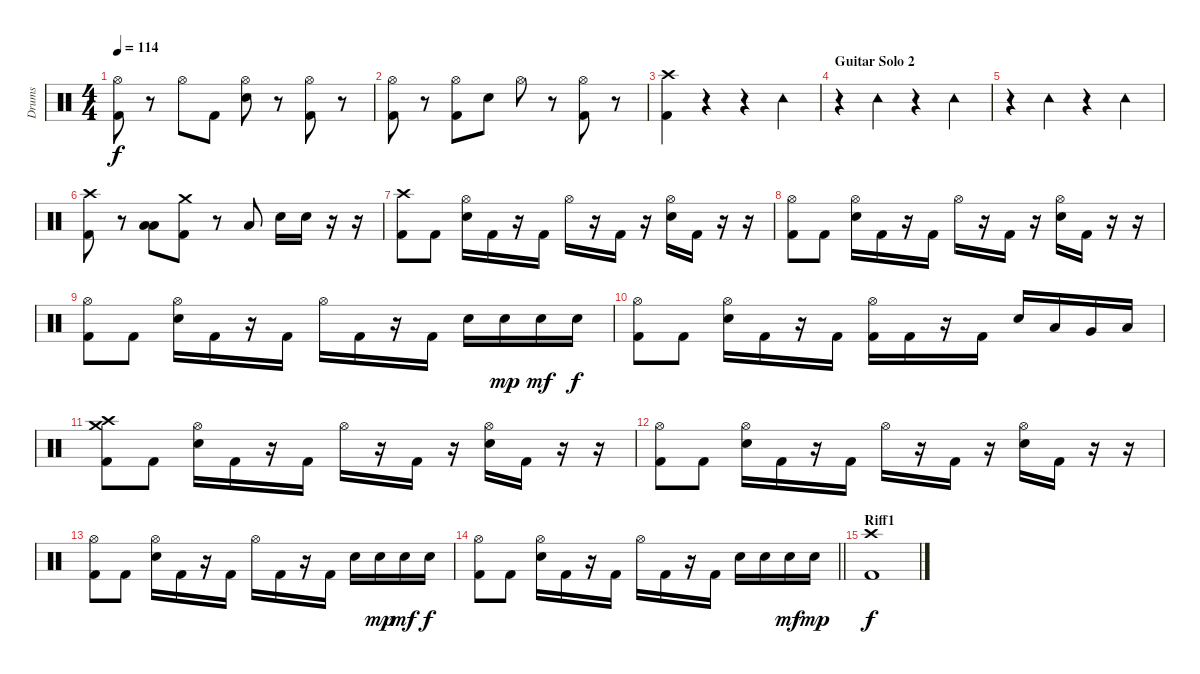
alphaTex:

\track ("Drums" "Drums") {instrument percussion}
\staff {score}
\articulation defaults
\ts (4 4)
\tempo 114
\clef neutral
\ks c
("Kick (hit) 2" "Hi-Hat (open)").8{dy f} r.8 "Hi-Hat (open)".8 "Kick (hit) 2".8 ("Electric Snare (hit)" "Hi-Hat (open)").8 r.8 ("Kick (hit) 2" "Hi-Hat (open)").8 r.8 |
("Kick (hit) 2" "Hi-Hat (open)").8 r.8 ("Kick (hit) 2" "Hi-Hat (open)").8 "Electric Snare (hit)".8 "Hi-Hat (open)".8 r.8 ("Kick (hit) 2" "Hi-Hat (open)").8 r.8 |
("Kick (hit) 2" "Crash high (hit)").4 r.4 r.4 "Tambourine (hit)".4 |
\section ("" "Guitar Solo 2")
r.4 "Tambourine (hit)".4 r.4 "Tambourine (hit)".4 |
r.4 "Tambourine (hit)".4 r.4 "Tambourine (hit)".4 |
("Kick (hit) 2" "Crash high (hit)").8 r.8 ("Low Floor Tom (hit)" "Low Tom (hit)").8 ("Kick (hit) 2" "Crash medium (hit)").8 r.8 "Low Floor Tom (hit)".8 "Electric Snare (hit)".16 "Electric Snare (hit)".16 r.16 r.16 |
("Kick (hit) 2" "Crash high (hit)").8 "Kick (hit) 2".8 ("Electric Snare (hit)" "Hi-Hat (open)").16 "Kick (hit) 2".16 r.16 "Kick (hit) 2".16 "Hi-Hat (open)".16 r.16 "Kick (hit) 2".16 r.16 ("Electric Snare (hit)" "Hi-Hat (open)").16 "Kick (hit) 2".16 r.16 r.16 |
("Kick (hit) 2" "Hi-Hat (open)").8 "Kick (hit) 2".8 ("Electric Snare (hit)" "Hi-Hat (open)").16 "Kick (hit) 2".16 r.16 "Kick (hit) 2".16 "Hi-Hat (open)".16 r.16 "Kick (hit) 2".16 r.16 ("Electric Snare (hit)" "Hi-Hat (open)").16 "Kick (hit) 2".16 r.16 r.16 |
("Kick (hit) 2" "Hi-Hat (open)").8 "Kick (hit) 2".8 ("Electric Snare (hit)" "Hi-Hat (open)").16 "Kick (hit) 2".16 r.16 "Kick (hit) 2".16 "Hi-Hat (open)".16 "Kick (hit) 2".16 r.16 "Kick (hit) 2".16 "Electric Snare (hit)".16 "Electric Snare (hit)".16{dy mp} "Electric Snare (hit)".16{dy mf} "Electric Snare (hit)".16{dy f} |
("Kick (hit) 2" "Hi-Hat (open)").8 "Kick (hit) 2".8 ("Electric Snare (hit)" "Hi-Hat (open)").16 "Kick (hit) 2".16 r.16 "Kick (hit) 2".16 ("Kick (hit) 2" "Hi-Hat (open)").16 "Kick (hit) 2".16 r.16 "Kick (hit) 2".16 "Electric Snare (hit)".16 "Low Tom (hit)".16 "Very Low Tom (hit)".16 "Low Floor Tom (hit)".16 |
("Kick (hit) 2" "Crash medium (hit)" "Crash high (hit)").8 "Kick (hit) 2".8 ("Electric Snare (hit)" "Hi-Hat (open)").16 "Kick (hit) 2".16 r.16 "Kick (hit) 2".16 "Hi-Hat (open)".16 r.16 "Kick (hit) 2".16 r.16 ("Electric Snare (hit)" "Hi-Hat (open)").16 "Kick (hit) 2".16 r.16 r.16 |
("Kick (hit) 2" "Hi-Hat (open)").8 "Kick (hit) 2".8 ("Electric Snare (hit)" "Hi-Hat (open)").16 "Kick (hit) 2".16 r.16 "Kick (hit) 2".16 "Hi-Hat (open)".16 r.16 "Kick (hit) 2".16 r.16 ("Electric Snare (hit)" "Hi-Hat (open)").16 "Kick (hit) 2".16 r.16 r.16 |
("Kick (hit) 2" "Hi-Hat (open)").8 "Kick (hit) 2".8 ("Electric Snare (hit)" "Hi-Hat (open)").16 "Kick (hit) 2".16 r.16 "Kick (hit) 2".16 "Hi-Hat (open)".16 "Kick (hit) 2".16 r.16 "Kick (hit) 2".16 "Electric Snare (hit)".16 "Electric Snare (hit)".16{dy mp} "Electric Snare (hit)".16{dy mf} "Electric Snare (hit)".16{dy f} |
\barLineRight lightlight
("Kick (hit) 2" "Hi-Hat (open)").8 "Kick (hit) 2".8 ("Electric Snare (hit)" "Hi-Hat (open)").16 "Kick (hit) 2".16 r.16 "Kick (hit) 2".16 "Hi-Hat (open)".16 "Kick (hit) 2".16 r.16 "Kick (hit) 2".16 "Electric Snare (hit)".16 "Electric Snare (hit)".16 "Electric Snare (hit)".16{dy mf} "Electric Snare (hit)".16{dy mp} |
\section ("" "Riff1")
("Kick (hit) 2" "Crash high (hit)").1{dy f}
